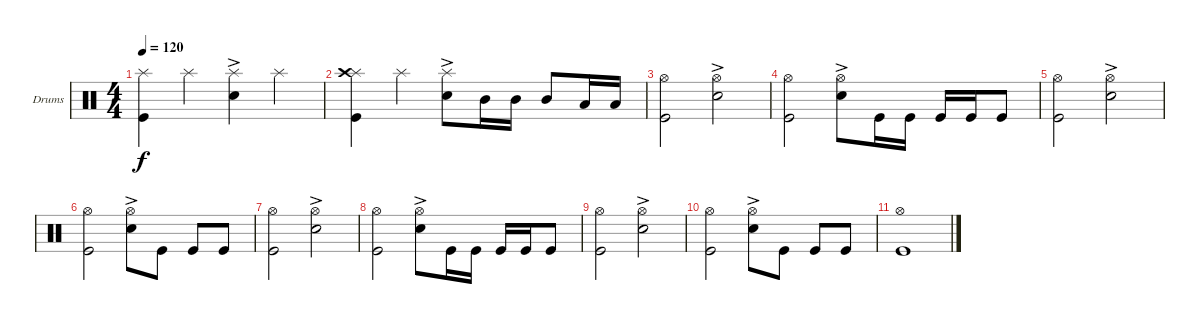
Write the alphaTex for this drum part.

\defaultSystemsLayout 4
\bracketExtendMode groupsimilarinstruments
\firstSystemTrackNameOrientation horizontal
\otherSystemsTrackNameOrientation horizontal
\track ("Drumkit" "Drums") {instrument percussion}
\staff {score}
\articulation defaults
\ts (4 4)
\tempo 120
\clef neutral
\ks c
("Kick (hit)" "Splash (hit)").4{dy f} "Splash (hit)".4 ("Snare (hit) 2"{ac} "Splash (hit)").4 "Splash (hit)".4 |
("Kick (hit)" "Splash (hit)" "Crash high (hit)").4 "Splash (hit)".4 ("Snare (hit) 2"{ac} "Splash (hit)").8 "Mid Tom (hit)".16 "Mid Tom (hit)".16 "Mid Tom (hit)".8 "Low Tom (hit)".16 "Low Tom (hit)".16 |
("Kick (hit)" "Hi-Hat (open)").2 ("Snare (hit) 2"{ac} "Hi-Hat (open)").2 |
("Kick (hit)" "Hi-Hat (open)").2 ("Snare (hit) 2"{ac} "Hi-Hat (open)").8 "Kick (hit)".16 "Kick (hit)".16 "Kick (hit)".16 "Kick (hit)".16 "Kick (hit)".8 |
("Kick (hit)" "Hi-Hat (open)").2 ("Snare (hit) 2"{ac} "Hi-Hat (open)").2 |
("Kick (hit)" "Hi-Hat (open)").2 ("Snare (hit) 2"{ac} "Hi-Hat (open)").8 "Kick (hit)".8 "Kick (hit)".8 "Kick (hit)".8 |
("Kick (hit)" "Hi-Hat (open)").2 ("Snare (hit) 2"{ac} "Hi-Hat (open)").2 |
("Kick (hit)" "Hi-Hat (open)").2 ("Snare (hit) 2"{ac} "Hi-Hat (open)").8 "Kick (hit)".16 "Kick (hit)".16 "Kick (hit)".16 "Kick (hit)".16 "Kick (hit)".8 |
("Kick (hit)" "Hi-Hat (open)").2 ("Snare (hit) 2"{ac} "Hi-Hat (open)").2 |
("Kick (hit)" "Hi-Hat (open)").2 ("Snare (hit) 2"{ac} "Hi-Hat (open)").8 "Kick (hit)".8 "Kick (hit)".8 "Kick (hit)".8 |
("Kick (hit)" "Hi-Hat (open)").1
